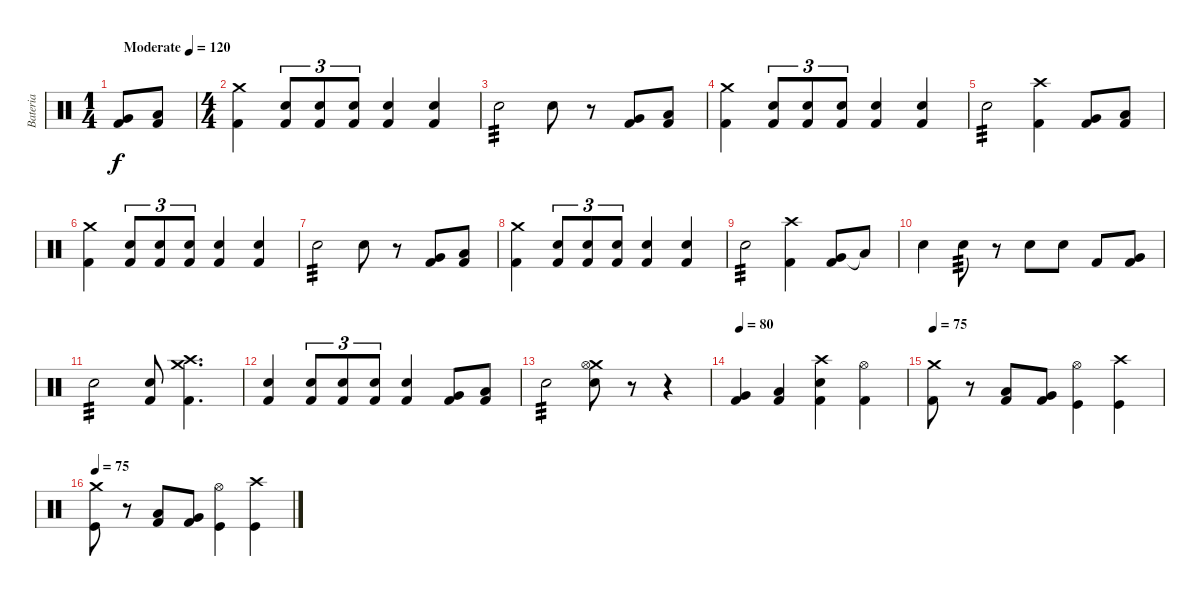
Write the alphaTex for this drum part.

\track ("Bateria" "Bateria") {instrument percussion}
\staff {score}
\articulation defaults
\ts (1 4)
\tempo (120 "Moderate")
\tempo 95
\tempo (120 "Moderate")
\clef neutral
\ks c
("Very Low Tom (hit)" "Kick (hit) 2").8{dy f volume 12 balance 5} ("Low Floor Tom (hit)" "Kick (hit) 2").8 |
\ts (4 4)
("Crash medium (hit)" "Kick (hit) 2").4 ("Electric Snare (hit)" "Kick (hit) 2").8{tu (3 2)} ("Electric Snare (hit)" "Kick (hit) 2").8{tu (3 2)} ("Electric Snare (hit)" "Kick (hit) 2").8{tu (3 2)} ("Electric Snare (hit)" "Kick (hit) 2").4 ("Electric Snare (hit)" "Kick (hit) 2").4 |
"Snare (hit) 2".2{tp 3} "Snare (hit) 2".8 r.8 ("Very Low Tom (hit)" "Kick (hit) 2").8 ("Low Floor Tom (hit)" "Kick (hit) 2").8 |
("Crash medium (hit)" "Kick (hit) 2").4 ("Electric Snare (hit)" "Kick (hit) 2").8{tu (3 2)} ("Electric Snare (hit)" "Kick (hit) 2").8{tu (3 2)} ("Electric Snare (hit)" "Kick (hit) 2").8{tu (3 2)} ("Electric Snare (hit)" "Kick (hit) 2").4 ("Electric Snare (hit)" "Kick (hit) 2").4 |
"Snare (hit) 2".2{tp 3} ("Crash high (hit)" "Kick (hit) 2").4 ("Very Low Tom (hit)" "Kick (hit) 2").8 ("Low Floor Tom (hit)" "Kick (hit) 2").8 |
("Crash medium (hit)" "Kick (hit) 2").4 ("Electric Snare (hit)" "Kick (hit) 2").8{tu (3 2)} ("Electric Snare (hit)" "Kick (hit) 2").8{tu (3 2)} ("Electric Snare (hit)" "Kick (hit) 2").8{tu (3 2)} ("Electric Snare (hit)" "Kick (hit) 2").4 ("Electric Snare (hit)" "Kick (hit) 2").4 |
"Snare (hit) 2".2{tp 3} "Snare (hit) 2".8 r.8 ("Very Low Tom (hit)" "Kick (hit) 2").8 ("Low Floor Tom (hit)" "Kick (hit) 2").8 |
("Crash medium (hit)" "Kick (hit) 2").4 ("Electric Snare (hit)" "Kick (hit) 2").8{tu (3 2)} ("Electric Snare (hit)" "Kick (hit) 2").8{tu (3 2)} ("Electric Snare (hit)" "Kick (hit) 2").8{tu (3 2)} ("Electric Snare (hit)" "Kick (hit) 2").4 ("Electric Snare (hit)" "Kick (hit) 2").4 |
"Snare (hit) 2".2{tp 3} ("Crash high (hit)" "Kick (hit) 2").4 ("Very Low Tom (hit)" "Kick (hit) 2").8 "Low Floor Tom (hit)"{t}.8 |
"Electric Snare (hit)".4 "Snare (hit) 2".8{tp 3} r.8 "Electric Snare (hit)".8 "Electric Snare (hit)".8 "Kick (hit) 2".8 ("Very Low Tom (hit)" "Kick (hit) 2").8 |
"Snare (hit) 2".2{tp 3} ("Electric Snare (hit)" "Kick (hit) 2").8 ("Crash high (hit)" "Crash medium (hit)" "Kick (hit) 2").4{d} |
("Electric Snare (hit)" "Kick (hit) 2").4 ("Electric Snare (hit)" "Kick (hit) 2").8{tu (3 2)} ("Electric Snare (hit)" "Kick (hit) 2").8{tu (3 2)} ("Electric Snare (hit)" "Kick (hit) 2").8{tu (3 2)} ("Electric Snare (hit)" "Kick (hit) 2").4 ("Very Low Tom (hit)" "Kick (hit) 2").8 ("Low Floor Tom (hit)" "Kick (hit) 2").8 |
"Snare (hit) 2".2{tp 3} ("Crash medium (hit)" "Hi-Hat (open)" "Electric Snare (hit)").8 r.8 r.4 |
\tempo 80
("Very Low Tom (hit)" "Kick (hit) 2").4 ("Low Floor Tom (hit)" "Kick (hit) 2").4 ("Electric Snare (hit)" "Crash high (hit)" "Kick (hit) 2").4 ("Hi-Hat (open)" "Kick (hit) 2").4 |
\tempo 75
("Crash medium (hit)" "Kick (hit) 2").8 r.8 ("Low Floor Tom (hit)" "Kick (hit) 2").8 ("Very Low Tom (hit)" "Kick (hit) 2").8 ("Hi-Hat (open)" "Kick (hit)").4 ("Crash high (hit)" "Kick (hit)").4 |
\tempo 65
\tempo 75
("Crash medium (hit)" "Kick (hit)").8 r.8 ("Low Floor Tom (hit)" "Kick (hit) 2").8 ("Very Low Tom (hit)" "Kick (hit) 2").8 ("Hi-Hat (open)" "Kick (hit)").4 ("Crash high (hit)" "Kick (hit)").4
